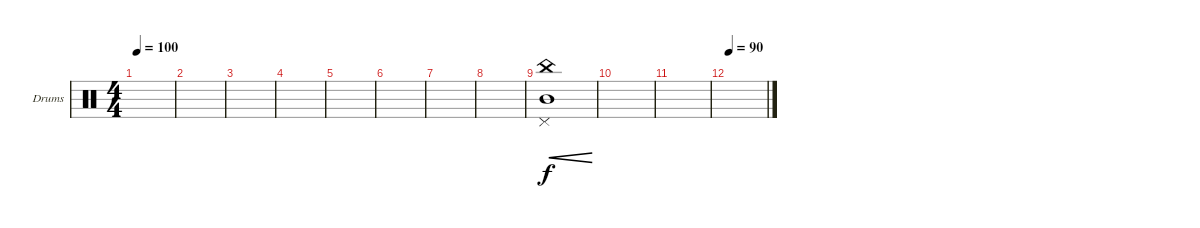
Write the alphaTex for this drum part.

\defaultSystemsLayout 4
\bracketExtendMode groupsimilarinstruments
\firstSystemTrackNameOrientation horizontal
\otherSystemsTrackNameOrientation horizontal
\track ("Drumkit" "Drums") {instrument percussion}
\staff {score}
\articulation defaults
\ts (4 4)
\tempo 100
\clef neutral
\ks c
|
|
|
|
|
|
|
|
("China (hit)" "Pedal Hi-Hat (hit)" "Mid Tom (hit)").1{cre} |
|
|
\tempo 90
